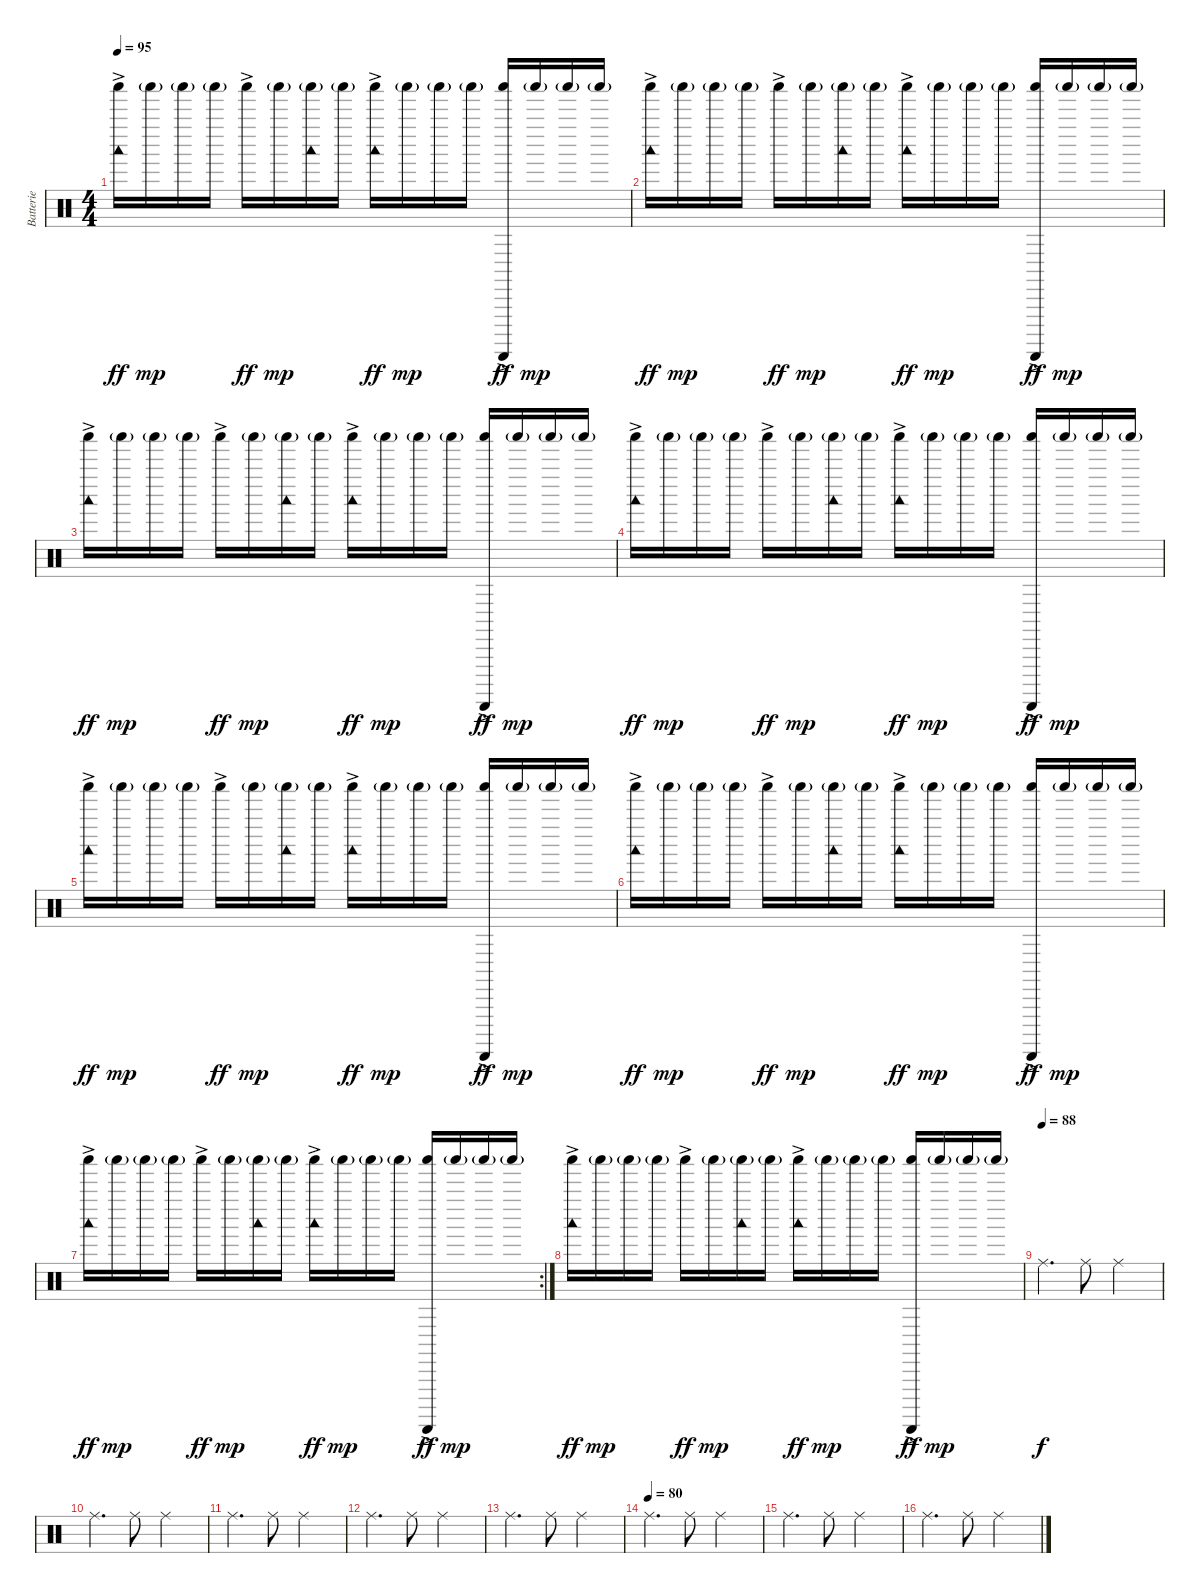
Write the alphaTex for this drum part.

\track ("Batterie" "Batterie") {instrument percussion}
\staff {score}
\articulation defaults
\ts (4 4)
\tempo 95
\clef neutral
\ks c
("Woodblock low (hit)" "Shaker (hit)"{ac}).16{dy ff} "Shaker (hit)"{g}.16{dy mp} "Shaker (hit)"{g}.16 "Shaker (hit)"{g}.16 "Shaker (hit)"{ac}.16{dy ff} "Shaker (hit)"{g}.16{dy mp} ("Woodblock low (hit)" "Shaker (hit)"{g}).16 "Shaker (hit)"{g}.16 ("Woodblock low (hit)" "Shaker (hit)"{ac}).16{dy ff} "Shaker (hit)"{g}.16{dy mp} "Shaker (hit)"{g}.16 "Shaker (hit)"{g}.16 ("Guiro (scrap-return)" "Shaker (hit)"{ac}).16{dy ff} "Shaker (hit)"{g}.16{dy mp} "Shaker (hit)"{g}.16 "Shaker (hit)"{g}.16 |
("Woodblock low (hit)" "Shaker (hit)"{ac}).16{dy ff} "Shaker (hit)"{g}.16{dy mp} "Shaker (hit)"{g}.16 "Shaker (hit)"{g}.16 "Shaker (hit)"{ac}.16{dy ff} "Shaker (hit)"{g}.16{dy mp} ("Woodblock low (hit)" "Shaker (hit)"{g}).16 "Shaker (hit)"{g}.16 ("Woodblock low (hit)" "Shaker (hit)"{ac}).16{dy ff} "Shaker (hit)"{g}.16{dy mp} "Shaker (hit)"{g}.16 "Shaker (hit)"{g}.16 ("Guiro (scrap-return)" "Shaker (hit)"{ac}).16{dy ff} "Shaker (hit)"{g}.16{dy mp} "Shaker (hit)"{g}.16 "Shaker (hit)"{g}.16 |
("Woodblock low (hit)" "Shaker (hit)"{ac}).16{dy ff} "Shaker (hit)"{g}.16{dy mp} "Shaker (hit)"{g}.16 "Shaker (hit)"{g}.16 "Shaker (hit)"{ac}.16{dy ff} "Shaker (hit)"{g}.16{dy mp} ("Woodblock low (hit)" "Shaker (hit)"{g}).16 "Shaker (hit)"{g}.16 ("Woodblock low (hit)" "Shaker (hit)"{ac}).16{dy ff} "Shaker (hit)"{g}.16{dy mp} "Shaker (hit)"{g}.16 "Shaker (hit)"{g}.16 ("Guiro (scrap-return)" "Shaker (hit)"{ac}).16{dy ff} "Shaker (hit)"{g}.16{dy mp} "Shaker (hit)"{g}.16 "Shaker (hit)"{g}.16 |
("Woodblock low (hit)" "Shaker (hit)"{ac}).16{dy ff} "Shaker (hit)"{g}.16{dy mp} "Shaker (hit)"{g}.16 "Shaker (hit)"{g}.16 "Shaker (hit)"{ac}.16{dy ff} "Shaker (hit)"{g}.16{dy mp} ("Woodblock low (hit)" "Shaker (hit)"{g}).16 "Shaker (hit)"{g}.16 ("Woodblock low (hit)" "Shaker (hit)"{ac}).16{dy ff} "Shaker (hit)"{g}.16{dy mp} "Shaker (hit)"{g}.16 "Shaker (hit)"{g}.16 ("Guiro (scrap-return)" "Shaker (hit)"{ac}).16{dy ff} "Shaker (hit)"{g}.16{dy mp} "Shaker (hit)"{g}.16 "Shaker (hit)"{g}.16 |
("Woodblock low (hit)" "Shaker (hit)"{ac}).16{dy ff} "Shaker (hit)"{g}.16{dy mp} "Shaker (hit)"{g}.16 "Shaker (hit)"{g}.16 "Shaker (hit)"{ac}.16{dy ff} "Shaker (hit)"{g}.16{dy mp} ("Woodblock low (hit)" "Shaker (hit)"{g}).16 "Shaker (hit)"{g}.16 ("Woodblock low (hit)" "Shaker (hit)"{ac}).16{dy ff} "Shaker (hit)"{g}.16{dy mp} "Shaker (hit)"{g}.16 "Shaker (hit)"{g}.16 ("Guiro (scrap-return)" "Shaker (hit)"{ac}).16{dy ff} "Shaker (hit)"{g}.16{dy mp} "Shaker (hit)"{g}.16 "Shaker (hit)"{g}.16 |
("Woodblock low (hit)" "Shaker (hit)"{ac}).16{dy ff} "Shaker (hit)"{g}.16{dy mp} "Shaker (hit)"{g}.16 "Shaker (hit)"{g}.16 "Shaker (hit)"{ac}.16{dy ff} "Shaker (hit)"{g}.16{dy mp} ("Woodblock low (hit)" "Shaker (hit)"{g}).16 "Shaker (hit)"{g}.16 ("Woodblock low (hit)" "Shaker (hit)"{ac}).16{dy ff} "Shaker (hit)"{g}.16{dy mp} "Shaker (hit)"{g}.16 "Shaker (hit)"{g}.16 ("Guiro (scrap-return)" "Shaker (hit)"{ac}).16{dy ff} "Shaker (hit)"{g}.16{dy mp} "Shaker (hit)"{g}.16 "Shaker (hit)"{g}.16 |
\rc 2
("Woodblock low (hit)" "Shaker (hit)"{ac}).16{dy ff} "Shaker (hit)"{g}.16{dy mp} "Shaker (hit)"{g}.16 "Shaker (hit)"{g}.16 "Shaker (hit)"{ac}.16{dy ff} "Shaker (hit)"{g}.16{dy mp} ("Woodblock low (hit)" "Shaker (hit)"{g}).16 "Shaker (hit)"{g}.16 ("Woodblock low (hit)" "Shaker (hit)"{ac}).16{dy ff} "Shaker (hit)"{g}.16{dy mp} "Shaker (hit)"{g}.16 "Shaker (hit)"{g}.16 ("Guiro (scrap-return)" "Shaker (hit)"{ac}).16{dy ff} "Shaker (hit)"{g}.16{dy mp} "Shaker (hit)"{g}.16 "Shaker (hit)"{g}.16 |
("Woodblock low (hit)" "Shaker (hit)"{ac}).16{dy ff} "Shaker (hit)"{g}.16{dy mp} "Shaker (hit)"{g}.16 "Shaker (hit)"{g}.16 "Shaker (hit)"{ac}.16{dy ff} "Shaker (hit)"{g}.16{dy mp} ("Woodblock low (hit)" "Shaker (hit)"{g}).16 "Shaker (hit)"{g}.16 ("Woodblock low (hit)" "Shaker (hit)"{ac}).16{dy ff} "Shaker (hit)"{g}.16{dy mp} "Shaker (hit)"{g}.16 "Shaker (hit)"{g}.16 ("Guiro (scrap-return)" "Shaker (hit)"{ac}).16{dy ff} "Shaker (hit)"{g}.16{dy mp} "Shaker (hit)"{g}.16 "Shaker (hit)"{g}.16 |
\tempo (88)
"Ride (middle)".4{d dy f} "Ride (middle)".8 "Ride (middle)".2 |
"Ride (middle)".4{d} "Ride (middle)".8 "Ride (middle)".2 |
"Ride (middle)".4{d} "Ride (middle)".8 "Ride (middle)".2 |
"Ride (middle)".4{d} "Ride (middle)".8 "Ride (middle)".2 |
"Ride (middle)".4{d} "Ride (middle)".8 "Ride (middle)".2 |
\tempo (80)
"Ride (middle)".4{d} "Ride (middle)".8 "Ride (middle)".2 |
"Ride (middle)".4{d} "Ride (middle)".8 "Ride (middle)".2 |
"Ride (middle)".4{d} "Ride (middle)".8 "Ride (middle)".2
